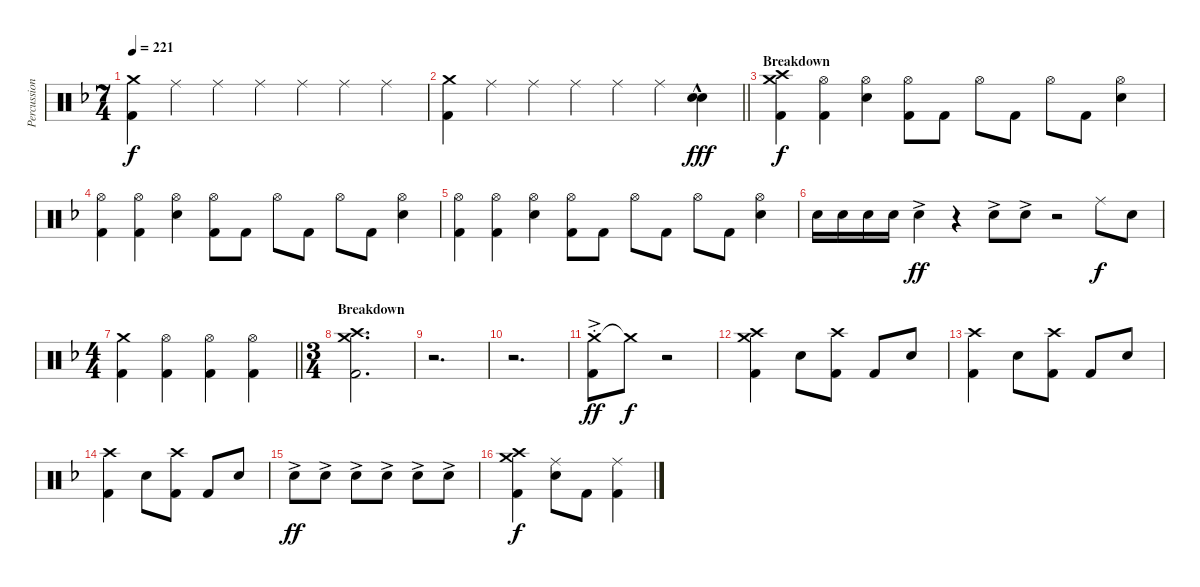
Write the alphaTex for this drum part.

\track ("Percussion" "Percussion") {instrument percussion}
\staff {score}
\articulation defaults
\ts (7 4)
\tempo 221
\clef neutral
\ks f
("Crash medium (hit)" "Kick (hit) 2").4{dy f} "Ride (middle)".4 "Ride (middle)".4 "Ride (middle)".4 "Ride (middle)".4 "Ride (middle)".4 "Ride (middle)".4 |
\barLineRight lightlight
("Crash medium (hit)" "Kick (hit) 2").4 "Ride (middle)".4 "Ride (middle)".4 "Ride (middle)".4 "Ride (middle)".4 "Ride (middle)".4 ("Electric Snare (hit)"{hac} "Electric Snare (hit)"{hac}).4{dy fff} |
\section ("" "Breakdown")
("Crash medium (hit)" "Crash high (hit)" "Kick (hit) 2").4{dy f} ("Hi-Hat (open)" "Kick (hit) 2").4 ("Hi-Hat (open)" "Electric Snare (hit)").4 ("Hi-Hat (open)" "Kick (hit) 2").8 "Kick (hit) 2".8 "Hi-Hat (open)".8 "Kick (hit) 2".8 "Hi-Hat (open)".8 "Kick (hit) 2".8 ("Hi-Hat (open)" "Electric Snare (hit)").4 |
("Hi-Hat (open)" "Kick (hit) 2").4 ("Hi-Hat (open)" "Kick (hit) 2").4 ("Hi-Hat (open)" "Electric Snare (hit)").4 ("Hi-Hat (open)" "Kick (hit) 2").8 "Kick (hit) 2".8 "Hi-Hat (open)".8 "Kick (hit) 2".8 "Hi-Hat (open)".8 "Kick (hit) 2".8 ("Hi-Hat (open)" "Electric Snare (hit)").4 |
("Hi-Hat (open)" "Kick (hit) 2").4 ("Hi-Hat (open)" "Kick (hit) 2").4 ("Hi-Hat (open)" "Electric Snare (hit)").4 ("Hi-Hat (open)" "Kick (hit) 2").8 "Kick (hit) 2".8 "Hi-Hat (open)".8 "Kick (hit) 2".8 "Hi-Hat (open)".8 "Kick (hit) 2".8 ("Hi-Hat (open)" "Electric Snare (hit)").4 |
"Electric Snare (hit)".16 "Electric Snare (hit)".16 "Electric Snare (hit)".16 "Electric Snare (hit)".16 "Electric Snare (hit)"{ac}.4{dy ff} r.4 "Electric Snare (hit)"{ac}.8 "Electric Snare (hit)"{ac}.8 r.2 "Ride (middle)".8{dy f} "Electric Snare (hit)".8 |
\ts (4 4)
\barLineRight lightlight
("Crash medium (hit)" "Kick (hit) 2").4 ("Hi-Hat (open)" "Kick (hit) 2").4 ("Hi-Hat (open)" "Kick (hit) 2").4 ("Hi-Hat (open)" "Kick (hit) 2").4 |
\ts (3 4)
\section ("" "Breakdown")
("Crash medium (hit)" "Crash high (hit)" "Kick (hit) 2").2{d} |
r.2{d} |
r.2{d} |
("Crash medium (hit)"{ac st} "Kick (hit) 2").8{dy ff} "Crash medium (hit)"{t}.8{dy f volume 0} r.2 |
("Crash medium (hit)" "Crash high (hit)" "Kick (hit) 2").4{volume 14} "Electric Snare (hit)".8 ("Crash high (hit)" "Kick (hit) 2").8 "Kick (hit) 2".8 "Electric Snare (hit)".8 |
("Crash high (hit)" "Kick (hit) 2").4 "Electric Snare (hit)".8 ("Crash high (hit)" "Kick (hit) 2").8 "Kick (hit) 2".8 "Electric Snare (hit)".8 |
("Crash high (hit)" "Kick (hit) 2").4 "Electric Snare (hit)".8 ("Crash high (hit)" "Kick (hit) 2").8 "Kick (hit) 2".8 "Electric Snare (hit)".8 |
"Electric Snare (hit)"{ac}.8{dy ff} "Electric Snare (hit)"{ac}.8 "Electric Snare (hit)"{ac}.8 "Electric Snare (hit)"{ac}.8 "Electric Snare (hit)"{ac}.8 "Electric Snare (hit)"{ac}.8 |
("Crash medium (hit)" "Crash high (hit)" "Kick (hit) 2").4{dy f} ("Ride (middle)" "Electric Snare (hit)").8 "Kick (hit) 2".8 ("Ride (middle)" "Kick (hit) 2").4
